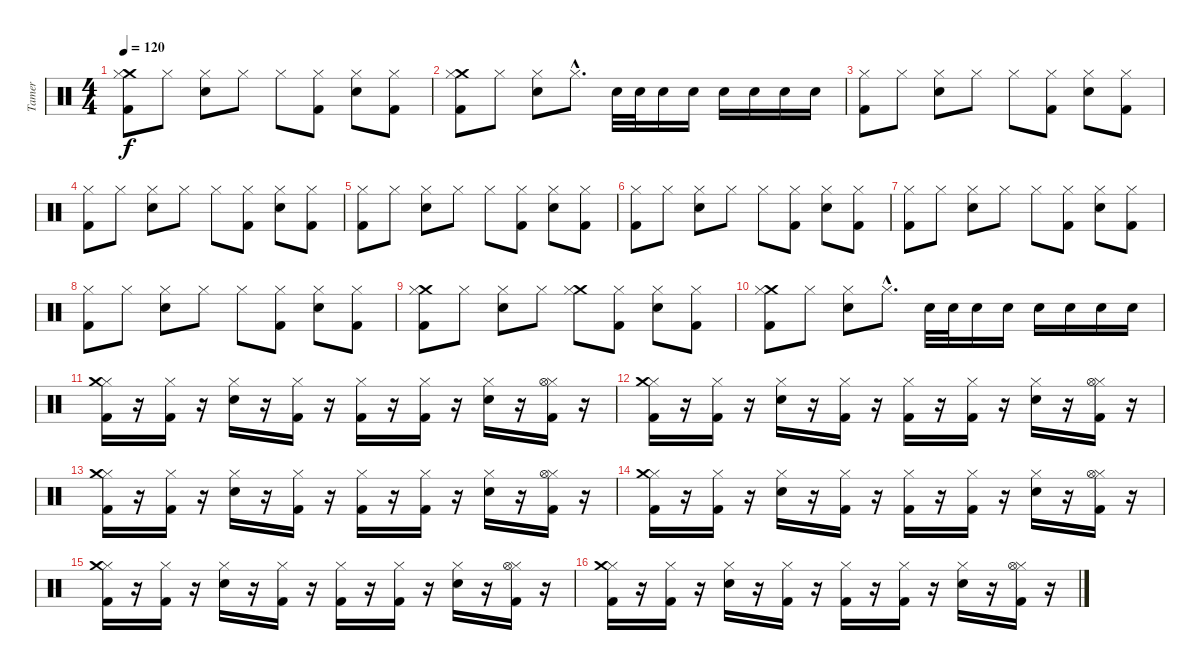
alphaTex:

\track ("Tamer" "Tamer") {instrument percussion}
\staff {score}
\articulation defaults
\ts (4 4)
\tempo 120
\clef neutral
\ks c
("Crash medium (hit)" "Hi-Hat (closed)" "Kick (hit) 2").8{dy f} "Hi-Hat (closed)".8 ("Electric Snare (hit)" "Hi-Hat (closed)").8 "Hi-Hat (closed)".8 "Hi-Hat (closed)".8 ("Hi-Hat (closed)" "Kick (hit) 2").8 ("Electric Snare (hit)" "Hi-Hat (closed)").8 ("Hi-Hat (closed)" "Kick (hit) 2").8 |
("Crash medium (hit)" "Hi-Hat (closed)" "Kick (hit) 2").8 "Hi-Hat (closed)".8 ("Electric Snare (hit)" "Hi-Hat (closed)").8 "Hi-Hat (closed)"{hac}.8{d} "Electric Snare (hit)".32 "Electric Snare (hit)".32 "Electric Snare (hit)".16 "Electric Snare (hit)".16 "Electric Snare (hit)".16 "Electric Snare (hit)".16 "Electric Snare (hit)".16 "Electric Snare (hit)".16 |
("Hi-Hat (closed)" "Kick (hit) 2").8 "Hi-Hat (closed)".8 ("Electric Snare (hit)" "Hi-Hat (closed)").8 "Hi-Hat (closed)".8 "Hi-Hat (closed)".8 ("Hi-Hat (closed)" "Kick (hit) 2").8 ("Electric Snare (hit)" "Hi-Hat (closed)").8 ("Hi-Hat (closed)" "Kick (hit) 2").8 |
("Hi-Hat (closed)" "Kick (hit) 2").8 "Hi-Hat (closed)".8 ("Electric Snare (hit)" "Hi-Hat (closed)").8 "Hi-Hat (closed)".8 "Hi-Hat (closed)".8 ("Hi-Hat (closed)" "Kick (hit) 2").8 ("Electric Snare (hit)" "Hi-Hat (closed)").8 ("Hi-Hat (closed)" "Kick (hit) 2").8 |
("Hi-Hat (closed)" "Kick (hit) 2").8 "Hi-Hat (closed)".8 ("Electric Snare (hit)" "Hi-Hat (closed)").8 "Hi-Hat (closed)".8 "Hi-Hat (closed)".8 ("Hi-Hat (closed)" "Kick (hit) 2").8 ("Electric Snare (hit)" "Hi-Hat (closed)").8 ("Hi-Hat (closed)" "Kick (hit) 2").8 |
("Hi-Hat (closed)" "Kick (hit) 2").8 "Hi-Hat (closed)".8 ("Electric Snare (hit)" "Hi-Hat (closed)").8 "Hi-Hat (closed)".8 "Hi-Hat (closed)".8 ("Hi-Hat (closed)" "Kick (hit) 2").8 ("Electric Snare (hit)" "Hi-Hat (closed)").8 ("Hi-Hat (closed)" "Kick (hit) 2").8 |
("Hi-Hat (closed)" "Kick (hit) 2").8 "Hi-Hat (closed)".8 ("Electric Snare (hit)" "Hi-Hat (closed)").8 "Hi-Hat (closed)".8 "Hi-Hat (closed)".8 ("Hi-Hat (closed)" "Kick (hit) 2").8 ("Electric Snare (hit)" "Hi-Hat (closed)").8 ("Hi-Hat (closed)" "Kick (hit) 2").8 |
("Hi-Hat (closed)" "Kick (hit) 2").8 "Hi-Hat (closed)".8 ("Electric Snare (hit)" "Hi-Hat (closed)").8 "Hi-Hat (closed)".8 "Hi-Hat (closed)".8 ("Hi-Hat (closed)" "Kick (hit) 2").8 ("Electric Snare (hit)" "Hi-Hat (closed)").8 ("Hi-Hat (closed)" "Kick (hit) 2").8 |
("Crash medium (hit)" "Hi-Hat (closed)" "Kick (hit) 2").8 "Hi-Hat (closed)".8 ("Electric Snare (hit)" "Hi-Hat (closed)").8 "Hi-Hat (closed)".8 ("Crash medium (hit)" "Hi-Hat (closed)").8 ("Hi-Hat (closed)" "Kick (hit) 2").8 ("Electric Snare (hit)" "Hi-Hat (closed)").8 ("Hi-Hat (closed)" "Kick (hit) 2").8 |
("Crash medium (hit)" "Hi-Hat (closed)" "Kick (hit) 2").8 "Hi-Hat (closed)".8 ("Electric Snare (hit)" "Hi-Hat (closed)").8 "Hi-Hat (closed)"{hac}.8{d} "Electric Snare (hit)".32 "Electric Snare (hit)".32 "Electric Snare (hit)".16 "Electric Snare (hit)".16 "Electric Snare (hit)".16 "Electric Snare (hit)".16 "Electric Snare (hit)".16 "Electric Snare (hit)".16 |
("Hi-Hat (closed)" "Crash medium (hit)" "Kick (hit) 2").16 r.16 ("Hi-Hat (closed)" "Kick (hit) 2").16 r.16 ("Hi-Hat (closed)" "Electric Snare (hit)").16 r.16 ("Hi-Hat (closed)" "Kick (hit) 2").16 r.16 ("Hi-Hat (closed)" "Kick (hit) 2").16 r.16 ("Hi-Hat (closed)" "Kick (hit) 2").16 r.16 ("Hi-Hat (closed)" "Electric Snare (hit)").16 r.16 ("Hi-Hat (closed)" "Hi-Hat (open)" "Kick (hit) 2").16 r.16 |
("Hi-Hat (closed)" "Crash medium (hit)" "Kick (hit) 2").16 r.16 ("Hi-Hat (closed)" "Kick (hit) 2").16 r.16 ("Hi-Hat (closed)" "Electric Snare (hit)").16 r.16 ("Hi-Hat (closed)" "Kick (hit) 2").16 r.16 ("Hi-Hat (closed)" "Kick (hit) 2").16 r.16 ("Hi-Hat (closed)" "Kick (hit) 2").16 r.16 ("Hi-Hat (closed)" "Electric Snare (hit)").16 r.16 ("Hi-Hat (closed)" "Hi-Hat (open)" "Kick (hit) 2").16 r.16 |
("Hi-Hat (closed)" "Crash medium (hit)" "Kick (hit) 2").16 r.16 ("Hi-Hat (closed)" "Kick (hit) 2").16 r.16 ("Hi-Hat (closed)" "Electric Snare (hit)").16 r.16 ("Hi-Hat (closed)" "Kick (hit) 2").16 r.16 ("Hi-Hat (closed)" "Kick (hit) 2").16 r.16 ("Hi-Hat (closed)" "Kick (hit) 2").16 r.16 ("Hi-Hat (closed)" "Electric Snare (hit)").16 r.16 ("Hi-Hat (closed)" "Hi-Hat (open)" "Kick (hit) 2").16 r.16 |
("Hi-Hat (closed)" "Crash medium (hit)" "Kick (hit) 2").16 r.16 ("Hi-Hat (closed)" "Kick (hit) 2").16 r.16 ("Hi-Hat (closed)" "Electric Snare (hit)").16 r.16 ("Hi-Hat (closed)" "Kick (hit) 2").16 r.16 ("Hi-Hat (closed)" "Kick (hit) 2").16 r.16 ("Hi-Hat (closed)" "Kick (hit) 2").16 r.16 ("Hi-Hat (closed)" "Electric Snare (hit)").16 r.16 ("Hi-Hat (closed)" "Hi-Hat (open)" "Kick (hit) 2").16 r.16 |
("Hi-Hat (closed)" "Crash medium (hit)" "Kick (hit) 2").16 r.16 ("Hi-Hat (closed)" "Kick (hit) 2").16 r.16 ("Hi-Hat (closed)" "Electric Snare (hit)").16 r.16 ("Hi-Hat (closed)" "Kick (hit) 2").16 r.16 ("Hi-Hat (closed)" "Kick (hit) 2").16 r.16 ("Hi-Hat (closed)" "Kick (hit) 2").16 r.16 ("Hi-Hat (closed)" "Electric Snare (hit)").16 r.16 ("Hi-Hat (closed)" "Hi-Hat (open)" "Kick (hit) 2").16 r.16 |
("Hi-Hat (closed)" "Crash medium (hit)" "Kick (hit) 2").16 r.16 ("Hi-Hat (closed)" "Kick (hit) 2").16 r.16 ("Hi-Hat (closed)" "Electric Snare (hit)").16 r.16 ("Hi-Hat (closed)" "Kick (hit) 2").16 r.16 ("Hi-Hat (closed)" "Kick (hit) 2").16 r.16 ("Hi-Hat (closed)" "Kick (hit) 2").16 r.16 ("Hi-Hat (closed)" "Electric Snare (hit)").16 r.16 ("Hi-Hat (closed)" "Hi-Hat (open)" "Kick (hit) 2").16 r.16
